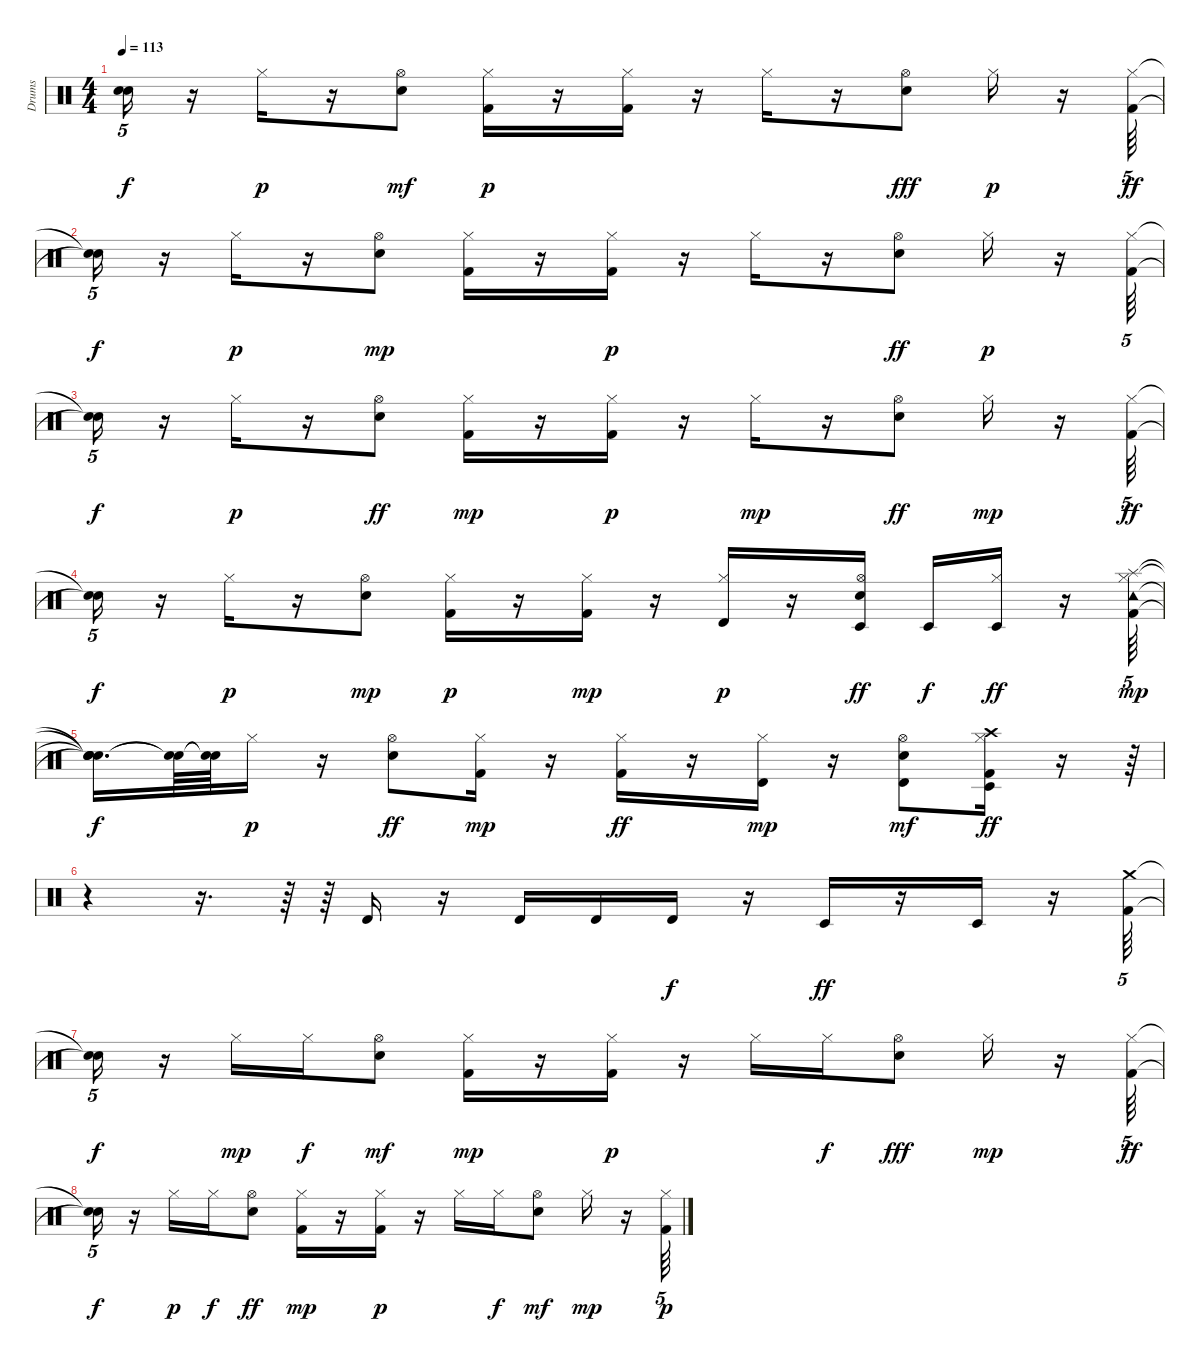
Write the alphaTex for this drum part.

\track ("Drums" "Drums") {instrument percussion}
\staff {score}
\articulation defaults
\ts (4 4)
\tempo 113
\clef neutral
\ks c
("Snare (hit)"{t} "Snare (hit)"{t}).16{tu (5 4) dy f} r.16 "Hi-Hat (closed)".16{dy p} r.16 ("Electric Snare (hit)" "Hi-Hat (open)").8{dy mf} ("Kick (hit) 2" "Hi-Hat (closed)").16{dy p} r.16 ("Kick (hit) 2" "Hi-Hat (closed)").16 r.16 "Hi-Hat (closed)".16 r.16 ("Electric Snare (hit)" "Hi-Hat (open)").8{dy fff} "Hi-Hat (closed)".16{dy p} r.16 ("Hi-Hat (closed)" "Kick (hit) 2").64{tu (5 4) dy ff} |
("Snare (hit)"{t} "Snare (hit)"{t}).16{tu (5 4) dy f} r.16 "Hi-Hat (closed)".16{dy p} r.16 ("Electric Snare (hit)" "Hi-Hat (open)").8{dy mp} ("Hi-Hat (closed)" "Kick (hit) 2").16 r.16 ("Kick (hit) 2" "Hi-Hat (closed)").16{dy p} r.16 "Hi-Hat (closed)".16 r.16 ("Hi-Hat (open)" "Electric Snare (hit)").8{dy ff} "Hi-Hat (closed)".16{dy p} r.16 ("Kick (hit) 2" "Hi-Hat (closed)").64{tu (5 4)} |
("Snare (hit)"{t} "Snare (hit)"{t}).16{tu (5 4) dy f} r.16 "Hi-Hat (closed)".16{dy p} r.16 ("Hi-Hat (open)" "Electric Snare (hit)").8{dy ff} ("Hi-Hat (closed)" "Kick (hit) 2").16{dy mp} r.16 ("Kick (hit) 2" "Hi-Hat (closed)").16{dy p} r.16 "Hi-Hat (closed)".16{dy mp} r.16 ("Hi-Hat (open)" "Electric Snare (hit)").8{dy ff} "Hi-Hat (closed)".16{dy mp} r.16 ("Hi-Hat (closed)" "Kick (hit) 2").64{tu (5 4) dy ff} |
("Snare (hit)"{t} "Snare (hit)"{t}).16{tu (5 4) dy f} r.16 "Hi-Hat (closed)".16{dy p} r.16 ("Electric Snare (hit)" "Hi-Hat (open)").8{dy mp} ("Hi-Hat (closed)" "Kick (hit) 2").16{dy p} r.16 ("Kick (hit) 2" "Hi-Hat (closed)").16{dy mp} r.16 ("Hi-Hat (closed)" "Timbale high (hit)").16{dy p} r.16 ("Electric Snare (hit)" "Hi-Hat (open)" "Timbale low (hit)").16{dy ff} "Timbale low (hit)".16{dy f} ("Hi-Hat (closed)" "Timbale low (hit)").16{dy ff} r.16 ("Splash (hit)" "Kick (hit) 2" "Tambourine (hit)" "Hi-Hat (closed)").64{tu (5 4) dy mp} |
("Snare (hit)"{t} "Snare (hit)"{t} "Snare (hit)"{t} "Snare (hit)"{t}).16{d dy f} ("Snare (hit)"{t} "Snare (hit)"{t}).64 ("Snare (hit)"{t} "Snare (hit)"{t}).64 "Hi-Hat (closed)".16{dy p} r.16 ("Hi-Hat (open)" "Electric Snare (hit)").8{dy ff} ("Kick (hit) 2" "Hi-Hat (closed)").16{dy mp} r.16 ("Hi-Hat (closed)" "Kick (hit) 2").16{dy ff} r.16 ("Timbale high (hit)" "Hi-Hat (closed)").16{dy mp} r.16 ("Timbale high (hit)" "Electric Snare (hit)" "Hi-Hat (open)").8{dy mf} ("Hi-Hat (closed)" "Crash high (hit)" "Timbale low (hit)" "Kick (hit) 2").16{dy ff} r.16 r.64{tu (5 4)} |
r.4 r.16{d} r.64 r.64 "Timbale high (hit)".16 r.16 "Timbale high (hit)".16 "Timbale high (hit)".16 "Timbale high (hit)".16{dy f} r.16 "Timbale low (hit)".16{dy ff} r.16 "Timbale low (hit)".16 r.16 ("Kick (hit) 2" "Crash medium (hit)").64{tu (5 4)} |
("Snare (hit)"{t} "Snare (hit)"{t}).16{tu (5 4) dy f} r.16 "Hi-Hat (closed)".16{dy mp} "Hi-Hat (closed)".16{dy f} ("Electric Snare (hit)" "Hi-Hat (open)").8{dy mf} ("Kick (hit) 2" "Hi-Hat (closed)").16{dy mp} r.16 ("Kick (hit) 2" "Hi-Hat (closed)").16{dy p} r.16 "Hi-Hat (closed)".16 "Hi-Hat (closed)".16{dy f} ("Hi-Hat (open)" "Electric Snare (hit)").8{dy fff} "Hi-Hat (closed)".16{dy mp} r.16 ("Hi-Hat (closed)" "Kick (hit) 2").64{tu (5 4) dy ff} |
("Snare (hit)"{t} "Snare (hit)"{t}).16{tu (5 4) dy f} r.16 "Hi-Hat (closed)".16{dy p} "Hi-Hat (closed)".16{dy f} ("Electric Snare (hit)" "Hi-Hat (open)").8{dy ff} ("Hi-Hat (closed)" "Kick (hit) 2").16{dy mp} r.16 ("Kick (hit) 2" "Hi-Hat (closed)").16{dy p} r.16 "Hi-Hat (closed)".16 "Hi-Hat (closed)".16{dy f} ("Electric Snare (hit)" "Hi-Hat (open)").8{dy mf} "Hi-Hat (closed)".16{dy mp} r.16 ("Kick (hit) 2" "Hi-Hat (closed)").64{tu (5 4) dy p}
